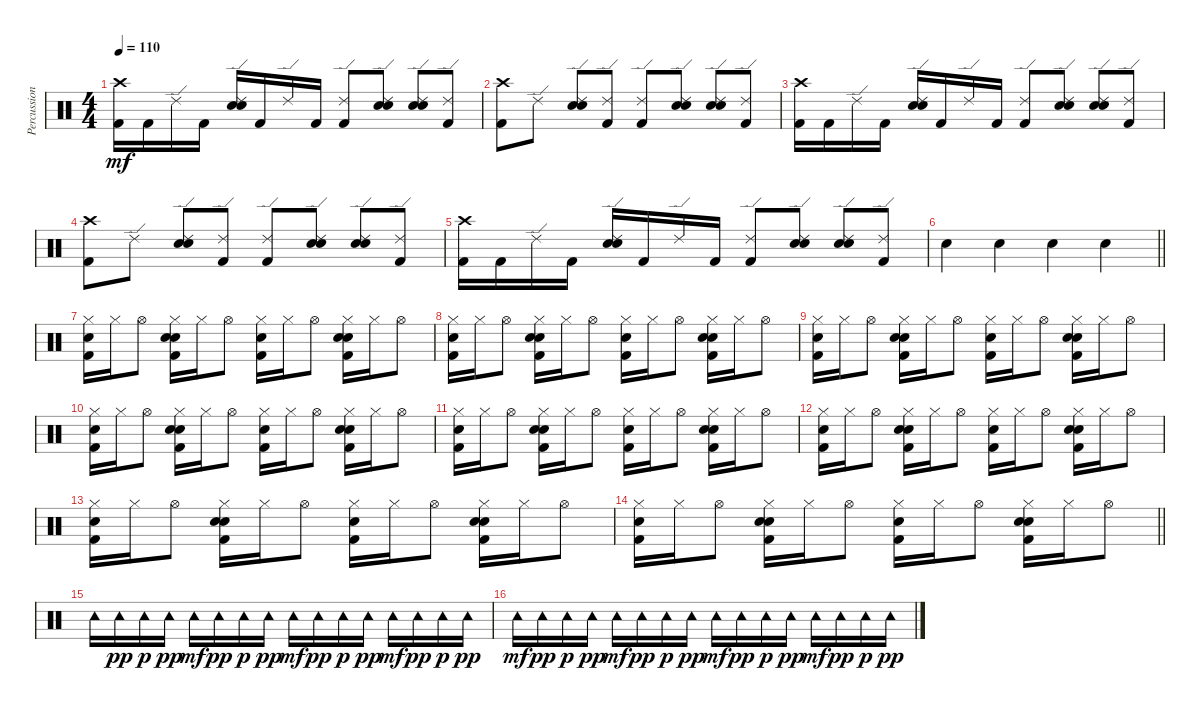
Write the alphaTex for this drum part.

\track ("Percussions" "Percussion") {instrument percussion}
\staff {score}
\articulation defaults
\ts (4 4)
\tempo 110
\clef neutral
\ks c
("Crash high (hit)" "Kick (hit) 2").16{dy mf} "Kick (hit) 2".16 "Ride (edge) 2".16 "Kick (hit) 2".16 ("Ride (edge) 2" "Hand Clap (hit)" "Electric Snare (hit)").16 "Kick (hit) 2".16 "Ride (edge) 2".16 "Kick (hit) 2".16 ("Ride (edge) 2" "Kick (hit) 2").8 ("Ride (edge) 2" "Hand Clap (hit)" "Electric Snare (hit)").8 ("Ride (edge) 2" "Hand Clap (hit)" "Electric Snare (hit)").8 ("Ride (edge) 2" "Kick (hit) 2").8 |
("Crash high (hit)" "Kick (hit) 2").8 "Ride (edge) 2".8 ("Ride (edge) 2" "Hand Clap (hit)" "Electric Snare (hit)").8 ("Ride (edge) 2" "Kick (hit) 2").8 ("Ride (edge) 2" "Kick (hit) 2").8 ("Ride (edge) 2" "Hand Clap (hit)" "Electric Snare (hit)").8 ("Ride (edge) 2" "Hand Clap (hit)" "Electric Snare (hit)").8 ("Ride (edge) 2" "Kick (hit) 2").8 |
("Crash high (hit)" "Kick (hit) 2").16 "Kick (hit) 2".16 "Ride (edge) 2".16 "Kick (hit) 2".16 ("Ride (edge) 2" "Hand Clap (hit)" "Electric Snare (hit)").16 "Kick (hit) 2".16 "Ride (edge) 2".16 "Kick (hit) 2".16 ("Ride (edge) 2" "Kick (hit) 2").8 ("Ride (edge) 2" "Hand Clap (hit)" "Electric Snare (hit)").8 ("Ride (edge) 2" "Hand Clap (hit)" "Electric Snare (hit)").8 ("Ride (edge) 2" "Kick (hit) 2").8 |
("Crash high (hit)" "Kick (hit) 2").8 "Ride (edge) 2".8 ("Ride (edge) 2" "Hand Clap (hit)" "Electric Snare (hit)").8 ("Ride (edge) 2" "Kick (hit) 2").8 ("Ride (edge) 2" "Kick (hit) 2").8 ("Ride (edge) 2" "Hand Clap (hit)" "Electric Snare (hit)").8 ("Ride (edge) 2" "Hand Clap (hit)" "Electric Snare (hit)").8 ("Ride (edge) 2" "Kick (hit) 2").8 |
("Crash high (hit)" "Kick (hit) 2").16 "Kick (hit) 2".16 "Ride (edge) 2".16 "Kick (hit) 2".16 ("Ride (edge) 2" "Hand Clap (hit)" "Electric Snare (hit)").16 "Kick (hit) 2".16 "Ride (edge) 2".16 "Kick (hit) 2".16 ("Ride (edge) 2" "Kick (hit) 2").8 ("Ride (edge) 2" "Hand Clap (hit)" "Electric Snare (hit)").8 ("Ride (edge) 2" "Hand Clap (hit)" "Electric Snare (hit)").8 ("Ride (edge) 2" "Kick (hit) 2").8 |
\barLineRight lightlight "Hand Clap (hit)".4 "Hand Clap (hit)".4 "Hand Clap (hit)".4 "Hand Clap (hit)".4
|
\section ("" "")
("Hi-Hat (closed)" "Hand Clap (hit)" "Kick (hit) 2").16 "Hi-Hat (closed)".16 "Hi-Hat (open)".8 ("Hi-Hat (closed)" "Hand Clap (hit)" "Electric Snare (hit)" "Kick (hit) 2").16 "Hi-Hat (closed)".16 "Hi-Hat (open)".8 ("Hi-Hat (closed)" "Hand Clap (hit)" "Kick (hit) 2").16 "Hi-Hat (closed)".16 "Hi-Hat (open)".8 ("Hi-Hat (closed)" "Hand Clap (hit)" "Electric Snare (hit)" "Kick (hit) 2").16 "Hi-Hat (closed)".16 "Hi-Hat (open)".8 |
("Hi-Hat (closed)" "Hand Clap (hit)" "Kick (hit) 2").16 "Hi-Hat (closed)".16 "Hi-Hat (open)".8 ("Hi-Hat (closed)" "Hand Clap (hit)" "Electric Snare (hit)" "Kick (hit) 2").16 "Hi-Hat (closed)".16 "Hi-Hat (open)".8 ("Hi-Hat (closed)" "Hand Clap (hit)" "Kick (hit) 2").16 "Hi-Hat (closed)".16 "Hi-Hat (open)".8 ("Hi-Hat (closed)" "Hand Clap (hit)" "Electric Snare (hit)" "Kick (hit) 2").16 "Hi-Hat (closed)".16 "Hi-Hat (open)".8 |
("Hi-Hat (closed)" "Hand Clap (hit)" "Kick (hit) 2").16 "Hi-Hat (closed)".16 "Hi-Hat (open)".8 ("Hi-Hat (closed)" "Hand Clap (hit)" "Electric Snare (hit)" "Kick (hit) 2").16 "Hi-Hat (closed)".16 "Hi-Hat (open)".8 ("Hi-Hat (closed)" "Hand Clap (hit)" "Kick (hit) 2").16 "Hi-Hat (closed)".16 "Hi-Hat (open)".8 ("Hi-Hat (closed)" "Hand Clap (hit)" "Electric Snare (hit)" "Kick (hit) 2").16 "Hi-Hat (closed)".16 "Hi-Hat (open)".8 |
("Hi-Hat (closed)" "Hand Clap (hit)" "Kick (hit) 2").16 "Hi-Hat (closed)".16 "Hi-Hat (open)".8 ("Hi-Hat (closed)" "Hand Clap (hit)" "Electric Snare (hit)" "Kick (hit) 2").16 "Hi-Hat (closed)".16 "Hi-Hat (open)".8 ("Hi-Hat (closed)" "Hand Clap (hit)" "Kick (hit) 2").16 "Hi-Hat (closed)".16 "Hi-Hat (open)".8 ("Hi-Hat (closed)" "Hand Clap (hit)" "Electric Snare (hit)" "Kick (hit) 2").16 "Hi-Hat (closed)".16 "Hi-Hat (open)".8 |
("Hi-Hat (closed)" "Hand Clap (hit)" "Kick (hit) 2").16 "Hi-Hat (closed)".16 "Hi-Hat (open)".8 ("Hi-Hat (closed)" "Hand Clap (hit)" "Electric Snare (hit)" "Kick (hit) 2").16 "Hi-Hat (closed)".16 "Hi-Hat (open)".8 ("Hi-Hat (closed)" "Hand Clap (hit)" "Kick (hit) 2").16 "Hi-Hat (closed)".16 "Hi-Hat (open)".8 ("Hi-Hat (closed)" "Hand Clap (hit)" "Electric Snare (hit)" "Kick (hit) 2").16 "Hi-Hat (closed)".16 "Hi-Hat (open)".8 |
("Hi-Hat (closed)" "Hand Clap (hit)" "Kick (hit) 2").16 "Hi-Hat (closed)".16 "Hi-Hat (open)".8 ("Hi-Hat (closed)" "Hand Clap (hit)" "Electric Snare (hit)" "Kick (hit) 2").16 "Hi-Hat (closed)".16 "Hi-Hat (open)".8 ("Hi-Hat (closed)" "Hand Clap (hit)" "Kick (hit) 2").16 "Hi-Hat (closed)".16 "Hi-Hat (open)".8 ("Hi-Hat (closed)" "Hand Clap (hit)" "Electric Snare (hit)" "Kick (hit) 2").16 "Hi-Hat (closed)".16 "Hi-Hat (open)".8 |
("Hi-Hat (closed)" "Hand Clap (hit)" "Kick (hit) 2").16 "Hi-Hat (closed)".16 "Hi-Hat (open)".8 ("Hi-Hat (closed)" "Hand Clap (hit)" "Electric Snare (hit)" "Kick (hit) 2").16 "Hi-Hat (closed)".16 "Hi-Hat (open)".8 ("Hi-Hat (closed)" "Hand Clap (hit)" "Kick (hit) 2").16 "Hi-Hat (closed)".16 "Hi-Hat (open)".8 ("Hi-Hat (closed)" "Hand Clap (hit)" "Electric Snare (hit)" "Kick (hit) 2").16 "Hi-Hat (closed)".16 "Hi-Hat (open)".8 |
\barLineRight lightlight
("Hi-Hat (closed)" "Hand Clap (hit)" "Kick (hit) 2").16 "Hi-Hat (closed)".16 "Hi-Hat (open)".8 ("Hi-Hat (closed)" "Hand Clap (hit)" "Electric Snare (hit)" "Kick (hit) 2").16 "Hi-Hat (closed)".16 "Hi-Hat (open)".8 ("Hi-Hat (closed)" "Hand Clap (hit)" "Kick (hit) 2").16 "Hi-Hat (closed)".16 "Hi-Hat (open)".8 ("Hi-Hat (closed)" "Hand Clap (hit)" "Electric Snare (hit)" "Kick (hit) 2").16 "Hi-Hat (closed)".16 "Hi-Hat (open)".8 |
\section ("" "")
"Tambourine (hit)".16 "Tambourine (hit)".16{dy pp} "Tambourine (hit)".16{dy p} "Tambourine (hit)".16{dy pp} "Tambourine (hit)".16{dy mf} "Tambourine (hit)".16{dy pp} "Tambourine (hit)".16{dy p} "Tambourine (hit)".16{dy pp} "Tambourine (hit)".16{dy mf} "Tambourine (hit)".16{dy pp} "Tambourine (hit)".16{dy p} "Tambourine (hit)".16{dy pp} "Tambourine (hit)".16{dy mf} "Tambourine (hit)".16{dy pp} "Tambourine (hit)".16{dy p} "Tambourine (hit)".16{dy pp} |
"Tambourine (hit)".16{dy mf} "Tambourine (hit)".16{dy pp} "Tambourine (hit)".16{dy p} "Tambourine (hit)".16{dy pp} "Tambourine (hit)".16{dy mf} "Tambourine (hit)".16{dy pp} "Tambourine (hit)".16{dy p} "Tambourine (hit)".16{dy pp} "Tambourine (hit)".16{dy mf} "Tambourine (hit)".16{dy pp} "Tambourine (hit)".16{dy p} "Tambourine (hit)".16{dy pp} "Tambourine (hit)".16{dy mf} "Tambourine (hit)".16{dy pp} "Tambourine (hit)".16{dy p} "Tambourine (hit)".16{dy pp}
